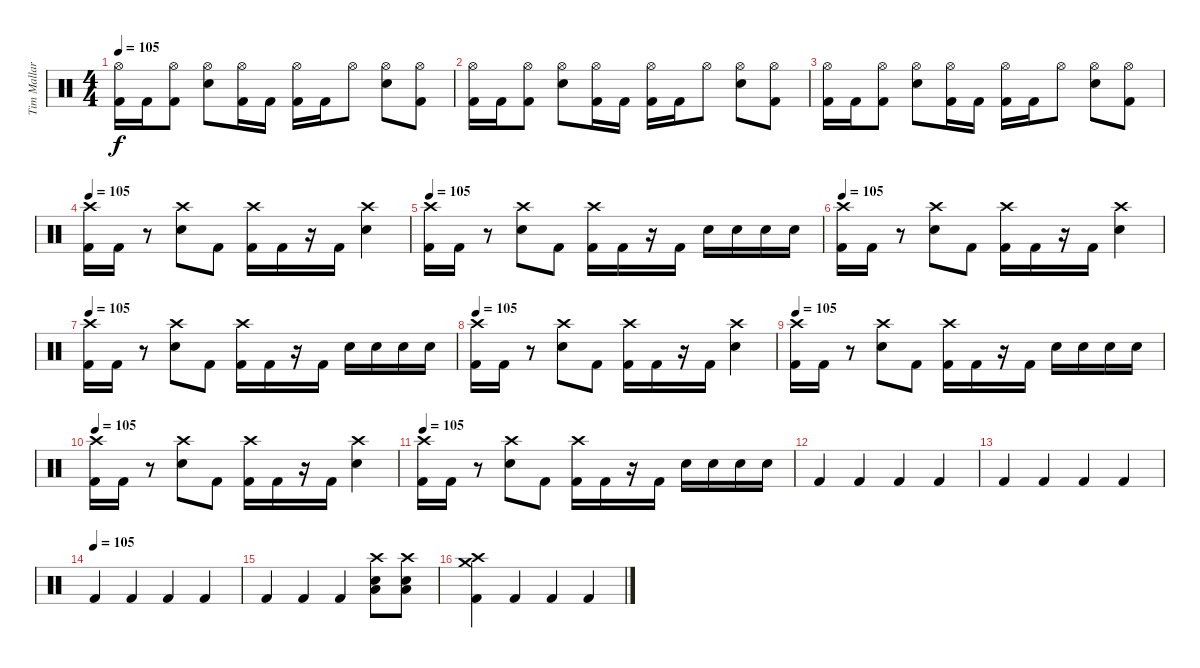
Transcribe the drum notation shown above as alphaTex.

\track ("Tim Mallare" "Tim Mallar") {instrument percussion}
\staff {score}
\articulation defaults
\ts (4 4)
\tempo 105
\clef neutral
\ks c
("Hi-Hat (open)" "Kick (hit) 2").16{dy f} "Kick (hit) 2".16 ("Hi-Hat (open)" "Kick (hit) 2").8 ("Hi-Hat (open)" "Electric Snare (hit)").8 ("Hi-Hat (open)" "Kick (hit) 2").16 "Kick (hit) 2".16 ("Hi-Hat (open)" "Kick (hit) 2").16 "Kick (hit) 2".16 "Hi-Hat (open)".8 ("Hi-Hat (open)" "Electric Snare (hit)").8 ("Hi-Hat (open)" "Kick (hit) 2").8 |
("Hi-Hat (open)" "Kick (hit) 2").16 "Kick (hit) 2".16 ("Hi-Hat (open)" "Kick (hit) 2").8 ("Hi-Hat (open)" "Electric Snare (hit)").8 ("Hi-Hat (open)" "Kick (hit) 2").16 "Kick (hit) 2".16 ("Hi-Hat (open)" "Kick (hit) 2").16 "Kick (hit) 2".16 "Hi-Hat (open)".8 ("Hi-Hat (open)" "Electric Snare (hit)").8 ("Hi-Hat (open)" "Kick (hit) 2").8 |
("Hi-Hat (open)" "Kick (hit) 2").16 "Kick (hit) 2".16 ("Hi-Hat (open)" "Kick (hit) 2").8 ("Hi-Hat (open)" "Electric Snare (hit)").8 ("Hi-Hat (open)" "Kick (hit) 2").16 "Kick (hit) 2".16 ("Hi-Hat (open)" "Kick (hit) 2").16 "Kick (hit) 2".16 "Hi-Hat (open)".8 ("Hi-Hat (open)" "Electric Snare (hit)").8 ("Hi-Hat (open)" "Kick (hit) 2").8 |
\tempo 105
("Crash high (hit)" "Kick (hit) 2").16 "Kick (hit) 2".16 r.8 ("Crash high (hit)" "Electric Snare (hit)").8 "Kick (hit) 2".8 ("Crash high (hit)" "Kick (hit) 2").16 "Kick (hit) 2".16 r.16 "Kick (hit) 2".16 ("Crash high (hit)" "Electric Snare (hit)").4 |
\tempo 105
("Crash high (hit)" "Kick (hit) 2").16 "Kick (hit) 2".16 r.8 ("Crash high (hit)" "Electric Snare (hit)").8 "Kick (hit) 2".8 ("Crash high (hit)" "Kick (hit) 2").16 "Kick (hit) 2".16 r.16 "Kick (hit) 2".16 "Electric Snare (hit)".16 "Electric Snare (hit)".16 "Electric Snare (hit)".16 "Electric Snare (hit)".16 |
\tempo 105
("Crash high (hit)" "Kick (hit) 2").16 "Kick (hit) 2".16 r.8 ("Crash high (hit)" "Electric Snare (hit)").8 "Kick (hit) 2".8 ("Crash high (hit)" "Kick (hit) 2").16 "Kick (hit) 2".16 r.16 "Kick (hit) 2".16 ("Crash high (hit)" "Electric Snare (hit)").4 |
\tempo 105
("Crash high (hit)" "Kick (hit) 2").16 "Kick (hit) 2".16 r.8 ("Crash high (hit)" "Electric Snare (hit)").8 "Kick (hit) 2".8 ("Crash high (hit)" "Kick (hit) 2").16 "Kick (hit) 2".16 r.16 "Kick (hit) 2".16 "Electric Snare (hit)".16 "Electric Snare (hit)".16 "Electric Snare (hit)".16 "Electric Snare (hit)".16 |
\tempo 105
("Crash high (hit)" "Kick (hit) 2").16 "Kick (hit) 2".16 r.8 ("Crash high (hit)" "Electric Snare (hit)").8 "Kick (hit) 2".8 ("Crash high (hit)" "Kick (hit) 2").16 "Kick (hit) 2".16 r.16 "Kick (hit) 2".16 ("Crash high (hit)" "Electric Snare (hit)").4 |
\tempo 105
("Crash high (hit)" "Kick (hit) 2").16 "Kick (hit) 2".16 r.8 ("Crash high (hit)" "Electric Snare (hit)").8 "Kick (hit) 2".8 ("Crash high (hit)" "Kick (hit) 2").16 "Kick (hit) 2".16 r.16 "Kick (hit) 2".16 "Electric Snare (hit)".16 "Electric Snare (hit)".16 "Electric Snare (hit)".16 "Electric Snare (hit)".16 |
\tempo 105
("Crash high (hit)" "Kick (hit) 2").16 "Kick (hit) 2".16 r.8 ("Crash high (hit)" "Electric Snare (hit)").8 "Kick (hit) 2".8 ("Crash high (hit)" "Kick (hit) 2").16 "Kick (hit) 2".16 r.16 "Kick (hit) 2".16 ("Crash high (hit)" "Electric Snare (hit)").4 |
\tempo 105
("Crash high (hit)" "Kick (hit) 2").16 "Kick (hit) 2".16 r.8 ("Crash high (hit)" "Electric Snare (hit)").8 "Kick (hit) 2".8 ("Crash high (hit)" "Kick (hit) 2").16 "Kick (hit) 2".16 r.16 "Kick (hit) 2".16 "Electric Snare (hit)".16 "Electric Snare (hit)".16 "Electric Snare (hit)".16 "Electric Snare (hit)".16 |
"Kick (hit) 2".4 "Kick (hit) 2".4 "Kick (hit) 2".4 "Kick (hit) 2".4 |
"Kick (hit) 2".4 "Kick (hit) 2".4 "Kick (hit) 2".4 "Kick (hit) 2".4 |
\tempo (105)
"Kick (hit) 2".4 "Kick (hit) 2".4 "Kick (hit) 2".4 "Kick (hit) 2".4 |
"Kick (hit) 2".4 "Kick (hit) 2".4 "Kick (hit) 2".4 ("Low Floor Tom (hit)" "Crash high (hit)" "Electric Snare (hit)").8 ("Crash high (hit)" "Electric Snare (hit)" "Low Floor Tom (hit)").8 |
("Crash high (hit)" "Crash medium (hit)" "Kick (hit) 2").4 "Kick (hit) 2".4 "Kick (hit) 2".4 "Kick (hit) 2".4
